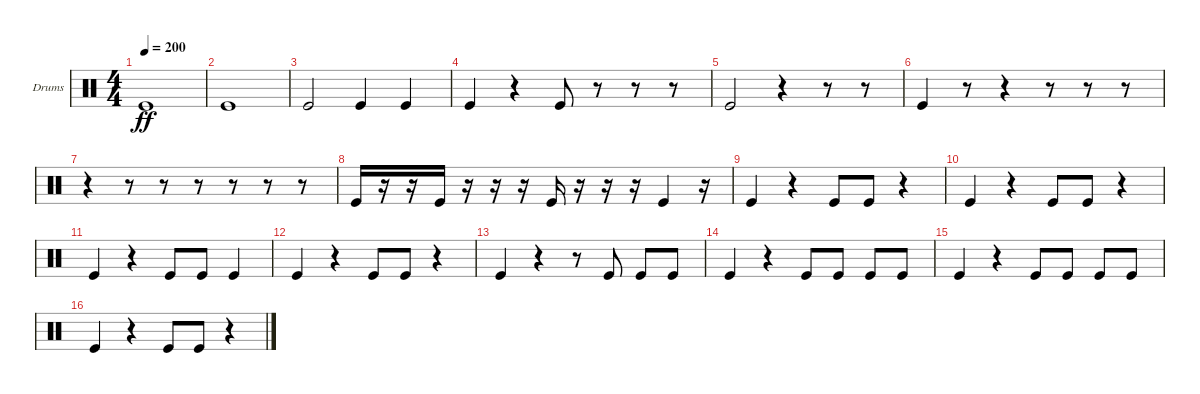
\bracketExtendMode groupsimilarinstruments
\firstSystemTrackNameOrientation horizontal
\otherSystemsTrackNameOrientation horizontal
\track ("Drumkit" "Drums") {instrument percussion}
\staff {score}
\articulation defaults
\ts (4 4)
\tempo 200
\clef neutral
\ks c "Kick (hit)".1{dy ff}
|
"Kick (hit)".1 |
"Kick (hit)".2 "Kick (hit)".4 "Kick (hit)".4 |
"Kick (hit)".4 r.4 "Kick (hit)".8 r.8 r.8 r.8 |
"Kick (hit)".2 r.4 r.8 r.8 |
"Kick (hit)".4 r.8 r.4 r.8 r.8 r.8 |
r.4 r.8 r.8 r.8 r.8 r.8 r.8 |
"Kick (hit)".16 r.16 r.16 "Kick (hit)".16 r.16 r.16 r.16 "Kick (hit)".16 r.16 r.16 r.16 "Kick (hit)".4 r.16 |
"Kick (hit)".4 r.4 "Kick (hit)".8 "Kick (hit)".8 r.4 |
"Kick (hit)".4 r.4 "Kick (hit)".8 "Kick (hit)".8 r.4 |
"Kick (hit)".4 r.4 "Kick (hit)".8 "Kick (hit)".8 "Kick (hit)".4 |
"Kick (hit)".4 r.4 "Kick (hit)".8 "Kick (hit)".8 r.4 |
"Kick (hit)".4 r.4 r.8 "Kick (hit)".8 "Kick (hit)".8 "Kick (hit)".8 |
"Kick (hit)".4 r.4 "Kick (hit)".8 "Kick (hit)".8 "Kick (hit)".8 "Kick (hit)".8 |
"Kick (hit)".4 r.4 "Kick (hit)".8 "Kick (hit)".8 "Kick (hit)".8 "Kick (hit)".8 |
"Kick (hit)".4 r.4 "Kick (hit)".8 "Kick (hit)".8 r.4
